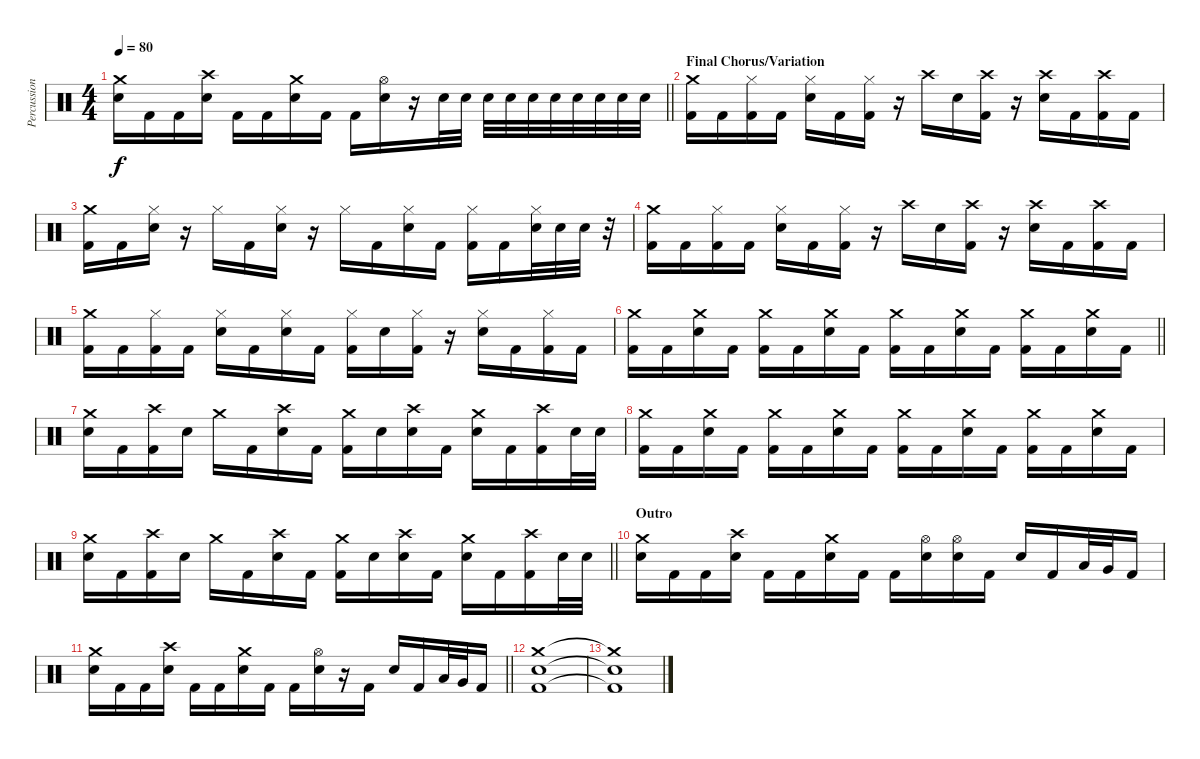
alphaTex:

\track ("Percussion" "Percussion") {instrument percussion}
\staff {score}
\articulation defaults
\ts (4 4)
\tempo 80
\clef neutral
\barLineRight lightlight
\ks c
("Crash medium (hit)" "Electric Snare (hit)").16{dy f} "Kick (hit) 2".16 "Kick (hit) 2".16 ("Crash high (hit)" "Electric Snare (hit)").16 "Kick (hit) 2".16 "Kick (hit) 2".16 ("Crash medium (hit)" "Electric Snare (hit)").16 "Kick (hit) 2".16 "Kick (hit) 2".16 ("Hi-Hat (open)" "Electric Snare (hit)").16 r.16 "Electric Snare (hit)".32 "Electric Snare (hit)".32 "Electric Snare (hit)".32 "Electric Snare (hit)".32 "Electric Snare (hit)".32 "Electric Snare (hit)".32 "Electric Snare (hit)".32 "Electric Snare (hit)".32 "Electric Snare (hit)".32 "Electric Snare (hit)".32 |
\section ("" "Final Chorus/Variation")
("Crash medium (hit)" "Kick (hit) 2").16 "Kick (hit) 2".16 ("Hi-Hat (closed)" "Kick (hit) 2").16 "Kick (hit) 2".16 ("Hi-Hat (closed)" "Electric Snare (hit)").16 "Kick (hit) 2".16 ("Hi-Hat (closed)" "Kick (hit) 2").16 r.16 "Crash high (hit)".16 "Electric Snare (hit)".16 ("Crash high (hit)" "Kick (hit) 2").16 r.16 ("Crash high (hit)" "Electric Snare (hit)").16 "Kick (hit) 2".16 ("Crash high (hit)" "Kick (hit) 2").16 "Kick (hit) 2".16 |
("Crash medium (hit)" "Kick (hit) 2").16 "Kick (hit) 2".16 ("Hi-Hat (closed)" "Electric Snare (hit)").16 r.16 "Hi-Hat (closed)".16 "Kick (hit) 2".16 ("Hi-Hat (closed)" "Electric Snare (hit)").16 r.16 "Hi-Hat (closed)".16 "Kick (hit) 2".16 ("Hi-Hat (closed)" "Electric Snare (hit)").16 "Kick (hit) 2".16 ("Hi-Hat (closed)" "Kick (hit) 2").16 "Kick (hit) 2".16 ("Hi-Hat (closed)" "Electric Snare (hit)").32 "Electric Snare (hit)".32 "Electric Snare (hit)".32 r.32 |
("Crash medium (hit)" "Kick (hit) 2").16 "Kick (hit) 2".16 ("Hi-Hat (closed)" "Kick (hit) 2").16 "Kick (hit) 2".16 ("Hi-Hat (closed)" "Electric Snare (hit)").16 "Kick (hit) 2".16 ("Hi-Hat (closed)" "Kick (hit) 2").16 r.16 "Crash high (hit)".16 "Electric Snare (hit)".16 ("Crash high (hit)" "Kick (hit) 2").16 r.16 ("Crash high (hit)" "Electric Snare (hit)").16 "Kick (hit) 2".16 ("Crash high (hit)" "Kick (hit) 2").16 "Kick (hit) 2".16 |
("Crash medium (hit)" "Kick (hit) 2").16 "Kick (hit) 2".16 ("Hi-Hat (closed)" "Kick (hit) 2").16 "Kick (hit) 2".16 ("Hi-Hat (closed)" "Electric Snare (hit)").16 "Kick (hit) 2".16 ("Hi-Hat (closed)" "Electric Snare (hit)").16 "Kick (hit) 2".16 ("Hi-Hat (closed)" "Kick (hit) 2").16 "Electric Snare (hit)".16 ("Hi-Hat (closed)" "Kick (hit) 2").16 r.16 ("Hi-Hat (closed)" "Electric Snare (hit)").16 "Kick (hit) 2".16 ("Hi-Hat (closed)" "Kick (hit) 2").16 "Kick (hit) 2".16 |
\barLineRight lightlight
("Crash medium (hit)" "Kick (hit) 2").16 "Kick (hit) 2".16 ("Crash medium (hit)" "Electric Snare (hit)").16 "Kick (hit) 2".16 ("Crash medium (hit)" "Kick (hit) 2").16 "Kick (hit) 2".16 ("Crash medium (hit)" "Electric Snare (hit)").16 "Kick (hit) 2".16 ("Crash medium (hit)" "Kick (hit) 2").16 "Kick (hit) 2".16 ("Crash medium (hit)" "Electric Snare (hit)").16 "Kick (hit) 2".16 ("Crash medium (hit)" "Kick (hit) 2").16 "Kick (hit) 2".16 ("Crash medium (hit)" "Electric Snare (hit)").16 "Kick (hit) 2".16 |
("Crash medium (hit)" "Electric Snare (hit)").16 "Kick (hit) 2".16 ("Crash high (hit)" "Kick (hit) 2").16 "Electric Snare (hit)".16 "Crash medium (hit)".16 "Kick (hit) 2".16 ("Crash high (hit)" "Electric Snare (hit)").16 "Kick (hit) 2".16 ("Crash medium (hit)" "Kick (hit) 2").16 "Electric Snare (hit)".16 ("Crash high (hit)" "Electric Snare (hit)").16 "Kick (hit) 2".16 ("Crash medium (hit)" "Electric Snare (hit)").16 "Kick (hit) 2".16 ("Crash high (hit)" "Kick (hit) 2").16 "Electric Snare (hit)".32 "Electric Snare (hit)".32 |
("Crash medium (hit)" "Kick (hit) 2").16 "Kick (hit) 2".16 ("Crash medium (hit)" "Electric Snare (hit)").16 "Kick (hit) 2".16 ("Crash medium (hit)" "Kick (hit) 2").16 "Kick (hit) 2".16 ("Crash medium (hit)" "Electric Snare (hit)").16 "Kick (hit) 2".16 ("Crash medium (hit)" "Kick (hit) 2").16 "Kick (hit) 2".16 ("Crash medium (hit)" "Electric Snare (hit)").16 "Kick (hit) 2".16 ("Crash medium (hit)" "Kick (hit) 2").16 "Kick (hit) 2".16 ("Crash medium (hit)" "Electric Snare (hit)").16 "Kick (hit) 2".16 |
\barLineRight lightlight
("Crash medium (hit)" "Electric Snare (hit)").16 "Kick (hit) 2".16 ("Crash high (hit)" "Kick (hit) 2").16 "Electric Snare (hit)".16 "Crash medium (hit)".16 "Kick (hit) 2".16 ("Crash high (hit)" "Electric Snare (hit)").16 "Kick (hit) 2".16 ("Crash medium (hit)" "Kick (hit) 2").16 "Electric Snare (hit)".16 ("Crash high (hit)" "Electric Snare (hit)").16 "Kick (hit) 2".16 ("Crash medium (hit)" "Electric Snare (hit)").16 "Kick (hit) 2".16 ("Crash high (hit)" "Kick (hit) 2").16 "Electric Snare (hit)".32 "Electric Snare (hit)".32 |
\section ("" "Outro")
("Crash medium (hit)" "Electric Snare (hit)").16 "Kick (hit) 2".16 "Kick (hit) 2".16 ("Crash high (hit)" "Electric Snare (hit)").16 "Kick (hit) 2".16 "Kick (hit) 2".16 ("Crash medium (hit)" "Electric Snare (hit)").16 "Kick (hit) 2".16 "Kick (hit) 2".16 ("Hi-Hat (open)" "Electric Snare (hit)").16 ("Hi-Hat (open)" "Electric Snare (hit)").16 "Kick (hit) 2".16 "Electric Snare (hit)".16 "Kick (hit) 2".16 "Low Floor Tom (hit)".32 "Very Low Tom (hit)".32 "Kick (hit) 2".16 |
\barLineRight lightlight
("Crash medium (hit)" "Electric Snare (hit)").16 "Kick (hit) 2".16 "Kick (hit) 2".16 ("Crash high (hit)" "Electric Snare (hit)").16 "Kick (hit) 2".16 "Kick (hit) 2".16 ("Crash medium (hit)" "Electric Snare (hit)").16 "Kick (hit) 2".16 "Kick (hit) 2".16 ("Hi-Hat (open)" "Electric Snare (hit)").16 r.16 "Kick (hit) 2".16 "Electric Snare (hit)".16 "Kick (hit) 2".16 "Low Floor Tom (hit)".32 "Very Low Tom (hit)".32 "Kick (hit) 2".16 |
("Crash medium (hit)" "Electric Snare (hit)" "Kick (hit) 2").1 |
("Crash medium (hit)"{t} "Electric Snare (hit)"{t} "Kick (hit) 2"{t}).1
